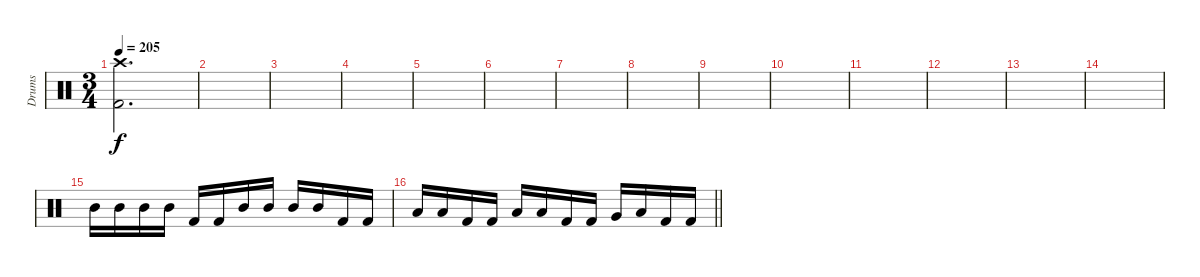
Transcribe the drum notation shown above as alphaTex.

\track ("Drums" "Drums") {instrument percussion}
\staff {score}
\articulation defaults
\ts (3 4)
\tempo 205
\clef neutral
\ks c
("Crash high (hit)" "Kick (hit) 2").2{d dy f} |
|
|
|
|
|
|
|
|
|
|
|
|
|
"Mid Tom (hit)".16 "Mid Tom (hit)".16 "Mid Tom (hit)".16 "Mid Tom (hit)".16 "Kick (hit) 2".16 "Kick (hit) 2".16 "Mid Tom (hit)".16 "Mid Tom (hit)".16 "Mid Tom (hit)".16 "Mid Tom (hit)".16 "Kick (hit) 2".16 "Kick (hit) 2".16 |
\barLineRight lightlight "Low Tom (hit)".16 "Low Tom (hit)".16 "Kick (hit) 2".16 "Kick (hit) 2".16 "Low Tom (hit)".16 "Low Tom (hit)".16 "Kick (hit) 2".16 "Kick (hit) 2".16 "Very Low Tom (hit)".16 "Low Tom (hit)".16 "Kick (hit) 2".16 "Kick (hit) 2".16
